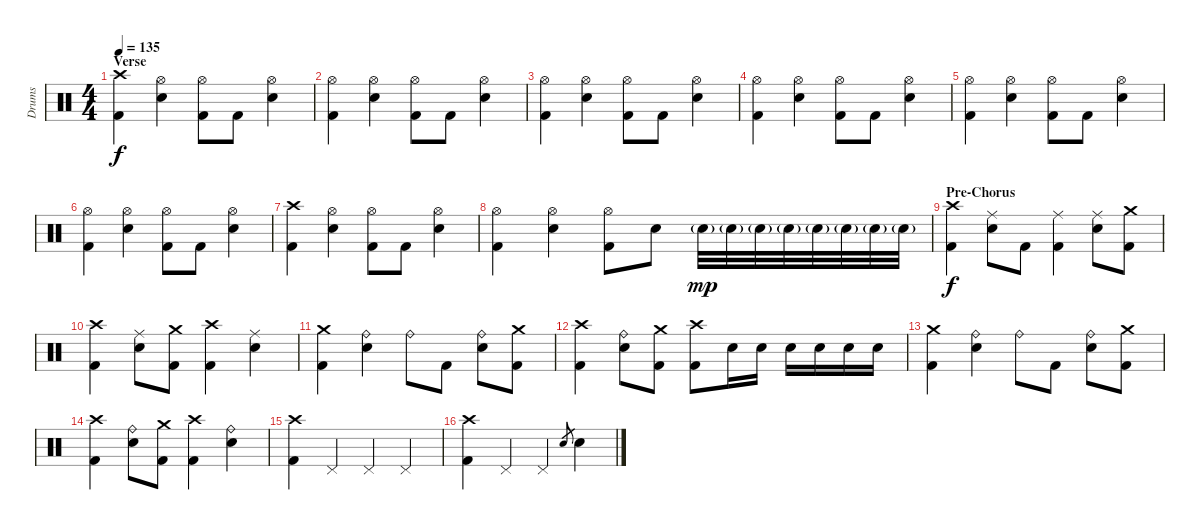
\track ("Drums" "Drums") {instrument percussion}
\staff {score}
\articulation defaults
\ts (4 4)
\section ("" "Verse")
\tempo 135
\clef neutral
\ks c
("Crash high (hit)" "Kick (hit) 2").4{dy f} ("Hi-Hat (open)" "Snare (hit) 2").4 ("Hi-Hat (open)" "Kick (hit) 2").8 "Kick (hit) 2".8 ("Hi-Hat (open)" "Snare (hit) 2").4 |
("Hi-Hat (open)" "Kick (hit) 2").4 ("Hi-Hat (open)" "Snare (hit) 2").4 ("Hi-Hat (open)" "Kick (hit) 2").8 "Kick (hit) 2".8 ("Hi-Hat (open)" "Snare (hit) 2").4 |
("Hi-Hat (open)" "Kick (hit) 2").4 ("Hi-Hat (open)" "Snare (hit) 2").4 ("Hi-Hat (open)" "Kick (hit) 2").8 "Kick (hit) 2".8 ("Hi-Hat (open)" "Snare (hit) 2").4 |
("Hi-Hat (open)" "Kick (hit) 2").4 ("Hi-Hat (open)" "Snare (hit) 2").4 ("Hi-Hat (open)" "Kick (hit) 2").8 "Kick (hit) 2".8 ("Hi-Hat (open)" "Snare (hit) 2").4 |
("Hi-Hat (open)" "Kick (hit) 2").4 ("Hi-Hat (open)" "Snare (hit) 2").4 ("Hi-Hat (open)" "Kick (hit) 2").8 "Kick (hit) 2".8 ("Hi-Hat (open)" "Snare (hit) 2").4 |
("Hi-Hat (open)" "Kick (hit) 2").4 ("Hi-Hat (open)" "Snare (hit) 2").4 ("Hi-Hat (open)" "Kick (hit) 2").8 "Kick (hit) 2".8 ("Hi-Hat (open)" "Snare (hit) 2").4 |
("Crash high (hit)" "Kick (hit) 2").4 ("Hi-Hat (open)" "Snare (hit) 2").4 ("Hi-Hat (open)" "Kick (hit) 2").8 "Kick (hit) 2".8 ("Hi-Hat (open)" "Snare (hit) 2").4 |
("Hi-Hat (open)" "Kick (hit) 2").4 ("Hi-Hat (open)" "Snare (hit) 2").4 ("Hi-Hat (open)" "Kick (hit) 2").8 "Snare (hit) 2".8 "Snare (hit) 2"{g}.32{dy mp} "Snare (hit) 2"{g}.32 "Snare (hit) 2"{g}.32 "Snare (hit) 2"{g}.32 "Snare (hit) 2"{g}.32 "Snare (hit) 2"{g}.32 "Snare (hit) 2"{g}.32 "Snare (hit) 2"{g}.32 |
\section ("" "Pre-Chorus")
("Crash high (hit)" "Kick (hit) 2").4{dy f} ("Ride (middle)" "Snare (hit) 2").8 "Kick (hit) 2".8 ("Ride (middle)" "Kick (hit) 2").4 ("Ride (middle)" "Snare (hit) 2").8 ("Crash medium (hit)" "Kick (hit) 2").8 |
("Crash high (hit)" "Kick (hit) 2").4 ("Ride (middle)" "Snare (hit) 2").8 ("Crash medium (hit)" "Kick (hit) 2").8 ("Crash high (hit)" "Kick (hit) 2").4 ("Ride (middle)" "Snare (hit) 2").4 |
("Crash medium (hit)" "Kick (hit) 2").4 ("Ride (bell)" "Snare (hit) 2").4 "Ride (bell)".8 "Kick (hit) 2".8 ("Ride (bell)" "Snare (hit) 2").8 ("Crash medium (hit)" "Kick (hit) 2").8 |
("Crash high (hit)" "Kick (hit) 2").4 ("Ride (bell)" "Snare (hit) 2").8 ("Crash medium (hit)" "Kick (hit) 2").8 ("Crash high (hit)" "Kick (hit) 2").8 "Snare (hit) 2".16 "Snare (hit) 2".16 "Snare (hit) 2".16 "Snare (hit) 2".16 "Snare (hit) 2".16 "Snare (hit) 2".16 |
("Crash medium (hit)" "Kick (hit) 2").4 ("Ride (bell)" "Snare (hit) 2").4 "Ride (bell)".8 "Kick (hit) 2".8 ("Ride (bell)" "Snare (hit) 2").8 ("Crash medium (hit)" "Kick (hit) 2").8 |
("Crash high (hit)" "Kick (hit) 2").4 ("Ride (bell)" "Snare (hit) 2").8 ("Crash medium (hit)" "Kick (hit) 2").8 ("Crash high (hit)" "Kick (hit) 2").4 ("Ride (bell)" "Snare (hit) 2").4 |
("Crash high (hit)" "Kick (hit) 2").4 "Pedal Hi-Hat (hit)".4 "Pedal Hi-Hat (hit)".4 "Pedal Hi-Hat (hit)".4 |
("Crash high (hit)" "Kick (hit) 2").4 "Pedal Hi-Hat (hit)".4 "Pedal Hi-Hat (hit)".4 "Snare (hit) 2".8{gr} "Snare (hit) 2".4
